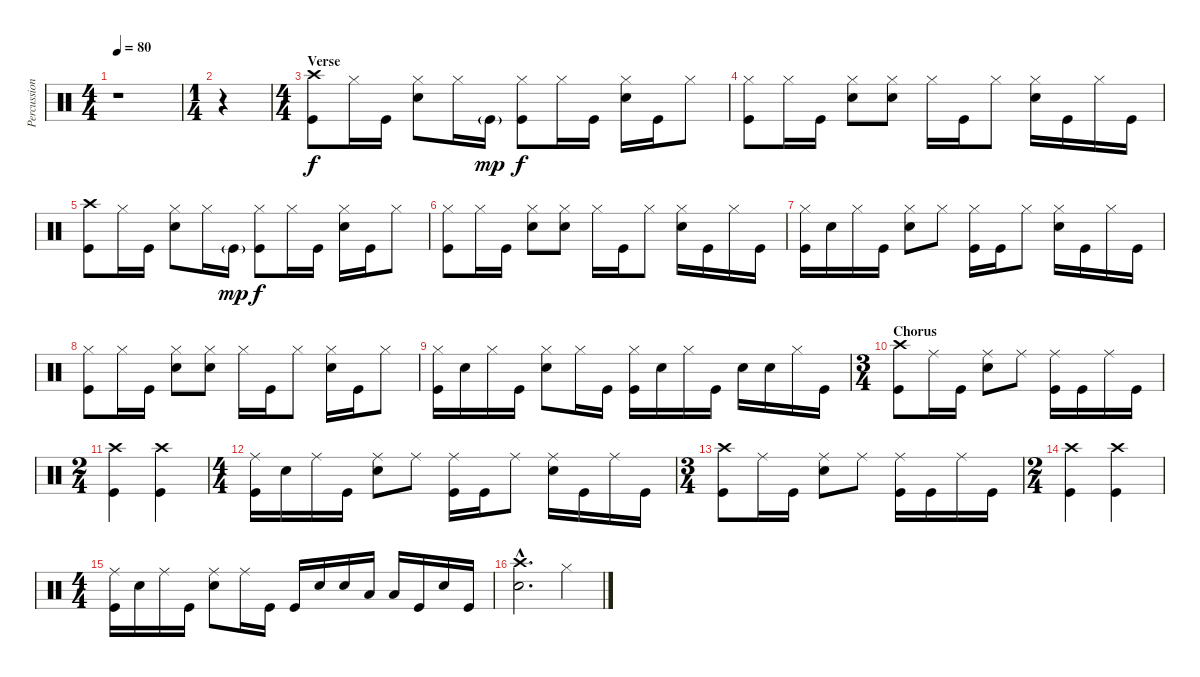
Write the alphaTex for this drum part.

\track ("Percussion" "Percussion") {instrument percussion}
\staff {score}
\articulation defaults
\ts (4 4)
\tempo 80
\clef neutral
\ks c
r.1{dy f} |
\ts (1 4)
r.4 |
\ts (4 4)
\section ("" "Verse")
("Crash high (hit)" "Kick (hit)").8 "Hi-Hat (closed)".16 "Kick (hit)".16 ("Hi-Hat (closed)" "Snare (hit) 2").8 "Hi-Hat (closed)".16 "Kick (hit)"{g}.16{dy mp} ("Hi-Hat (closed)" "Kick (hit)").8{dy f} "Hi-Hat (closed)".16 "Kick (hit)".16 ("Hi-Hat (closed)" "Snare (hit) 2").16 "Kick (hit)".16 "Hi-Hat (closed)".8 |
("Hi-Hat (closed)" "Kick (hit)").8 "Hi-Hat (closed)".16 "Kick (hit)".16 ("Hi-Hat (closed)" "Snare (hit) 2").8 ("Hi-Hat (closed)" "Snare (hit) 2").8 "Hi-Hat (closed)".16 "Kick (hit)".16 "Hi-Hat (closed)".8 ("Hi-Hat (closed)" "Snare (hit) 2").16 "Kick (hit)".16 "Hi-Hat (closed)".16 "Kick (hit)".16 |
("Crash high (hit)" "Kick (hit)").8 "Hi-Hat (closed)".16 "Kick (hit)".16 ("Hi-Hat (closed)" "Snare (hit) 2").8 "Hi-Hat (closed)".16 "Kick (hit)"{g}.16{dy mp} ("Hi-Hat (closed)" "Kick (hit)").8{dy f} "Hi-Hat (closed)".16 "Kick (hit)".16 ("Hi-Hat (closed)" "Snare (hit) 2").16 "Kick (hit)".16 "Hi-Hat (closed)".8 |
("Hi-Hat (closed)" "Kick (hit)").8 "Hi-Hat (closed)".16 "Kick (hit)".16 ("Hi-Hat (closed)" "Snare (hit) 2").8 ("Hi-Hat (closed)" "Snare (hit) 2").8 "Hi-Hat (closed)".16 "Kick (hit)".16 "Hi-Hat (closed)".8 ("Hi-Hat (closed)" "Snare (hit) 2").16 "Kick (hit)".16 "Hi-Hat (closed)".16 "Kick (hit)".16 |
("Hi-Hat (closed)" "Kick (hit)").16 "Snare (hit) 2".16 "Hi-Hat (closed)".16 "Kick (hit)".16 ("Hi-Hat (closed)" "Snare (hit) 2").8 "Hi-Hat (closed)".8 ("Hi-Hat (closed)" "Kick (hit)").16 "Kick (hit)".16 "Hi-Hat (closed)".8 ("Hi-Hat (closed)" "Snare (hit) 2").16 "Kick (hit)".16 "Hi-Hat (closed)".16 "Kick (hit)".16 |
("Hi-Hat (closed)" "Kick (hit)").8 "Hi-Hat (closed)".16 "Kick (hit)".16 ("Hi-Hat (closed)" "Snare (hit) 2").8 ("Hi-Hat (closed)" "Snare (hit) 2").8 "Hi-Hat (closed)".16 "Kick (hit)".16 "Hi-Hat (closed)".8 ("Hi-Hat (closed)" "Snare (hit) 2").16 "Kick (hit)".16 "Hi-Hat (closed)".8 |
("Hi-Hat (closed)" "Kick (hit)").16 "Snare (hit) 2".16 "Hi-Hat (closed)".16 "Kick (hit)".16 ("Hi-Hat (closed)" "Snare (hit) 2").8 "Hi-Hat (closed)".16 "Kick (hit)".16 ("Hi-Hat (closed)" "Kick (hit)").16 "Snare (hit) 2".16 "Hi-Hat (closed)".16 "Kick (hit)".16 "Snare (hit) 2".16 "Snare (hit) 2".16 "Hi-Hat (closed)".16 "Kick (hit)".16 |
\ts (3 4)
\section ("" "Chorus")
("Crash high (hit)" "Kick (hit)").8 "Ride (middle)".16 "Kick (hit)".16 ("Ride (middle)" "Snare (hit) 2").8 "Ride (middle)".8 ("Ride (middle)" "Kick (hit)").16 "Kick (hit)".16 "Ride (middle)".16 "Kick (hit)".16 |
\ts (2 4)
("Crash high (hit)" "Kick (hit)").4 ("Crash high (hit)" "Kick (hit)").4 |
\ts (4 4)
("Ride (middle)" "Kick (hit)").16 "Snare (hit) 2".16 "Ride (middle)".16 "Kick (hit)".16 ("Ride (middle)" "Snare (hit) 2").8 "Ride (middle)".8 ("Ride (middle)" "Kick (hit)").16 "Kick (hit)".16 "Ride (middle)".8 ("Ride (middle)" "Snare (hit) 2").16 "Kick (hit)".16 "Ride (middle)".16 "Kick (hit)".16 |
\ts (3 4)
("Crash high (hit)" "Kick (hit)").8 "Ride (middle)".16 "Kick (hit)".16 ("Ride (middle)" "Snare (hit) 2").8 "Ride (middle)".8 ("Ride (middle)" "Kick (hit)").16 "Kick (hit)".16 "Ride (middle)".16 "Kick (hit)".16 |
\ts (2 4)
("Crash high (hit)" "Kick (hit)").4 ("Crash high (hit)" "Kick (hit)").4 |
\ts (4 4)
("Ride (middle)" "Kick (hit)").16 "Snare (hit) 2".16 "Ride (middle)".16 "Kick (hit)".16 ("Ride (middle)" "Snare (hit) 2").8 "Ride (middle)".16 "Kick (hit)".16 "Kick (hit)".16 "Snare (hit) 2".16 "Snare (hit) 2".16 "Low Tom (hit)".16 "Low Tom (hit)".16 "Kick (hit)".16 "Snare (hit) 2".16 "Kick (hit)".16 |
("Crash high (hit)"{hac} "Snare (hit) 2"{hac}).2{d} "Hi-Hat (closed)".4
